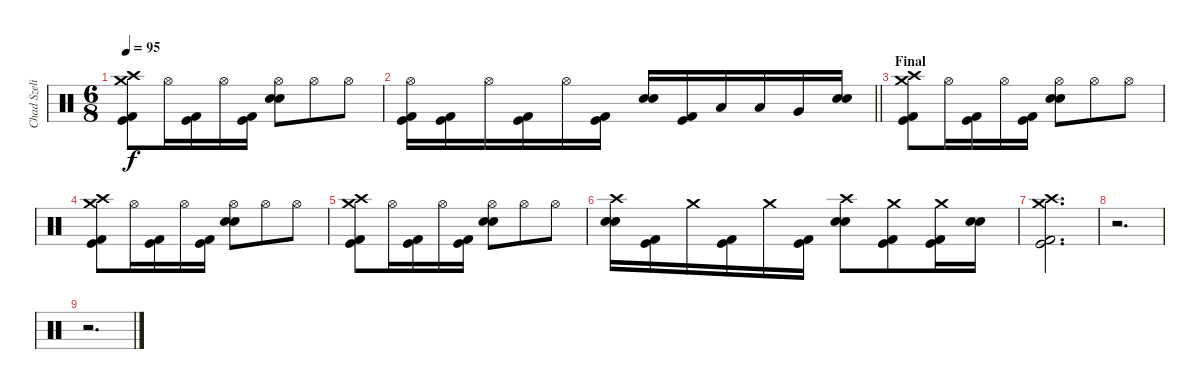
\track ("Chad Szeliga" "Chad Szeli") {instrument percussion}
\staff {score}
\articulation defaults
\ts (6 8)
\tempo 95
\clef neutral
\ks c
("Crash high (hit)" "Kick (hit) 2" "Kick (hit)" "Crash medium (hit)").8{dy f} "Hi-Hat (open)".16 ("Kick (hit) 2" "Kick (hit)").16 "Hi-Hat (open)".16 ("Kick (hit) 2" "Kick (hit)").16 ("Snare (hit) 2" "Snare (hit) 2" "Hi-Hat (open)").8 "Hi-Hat (open)".8 "Hi-Hat (open)".8 |
\barLineRight lightlight
("Kick (hit) 2" "Kick (hit)" "Hi-Hat (open)").16 ("Kick (hit) 2" "Kick (hit)").16 "Hi-Hat (open)".16 ("Kick (hit) 2" "Kick (hit)").16 "Hi-Hat (open)".16 ("Kick (hit) 2" "Kick (hit)").16 ("Snare (hit) 2" "Snare (hit) 2").16 ("Kick (hit) 2" "Kick (hit)").16 "Low Tom (hit)".16 "Low Tom (hit)".16 "Very Low Tom (hit)".16 ("Snare (hit) 2" "Snare (hit) 2").16 |
\section ("" "Final")
("Crash high (hit)" "Kick (hit) 2" "Kick (hit)" "Crash medium (hit)").8 "Hi-Hat (open)".16 ("Kick (hit) 2" "Kick (hit)").16 "Hi-Hat (open)".16 ("Kick (hit) 2" "Kick (hit)").16 ("Snare (hit) 2" "Snare (hit) 2" "Hi-Hat (open)").8 "Hi-Hat (open)".8 "Hi-Hat (open)".8 |
("Crash high (hit)" "Kick (hit) 2" "Kick (hit)" "Crash medium (hit)").8 "Hi-Hat (open)".16 ("Kick (hit) 2" "Kick (hit)").16 "Hi-Hat (open)".16 ("Kick (hit) 2" "Kick (hit)").16 ("Snare (hit) 2" "Snare (hit) 2" "Hi-Hat (open)").8 "Hi-Hat (open)".8 "Hi-Hat (open)".8 |
("Crash high (hit)" "Kick (hit) 2" "Kick (hit)" "Crash medium (hit)").8 "Hi-Hat (open)".16 ("Kick (hit) 2" "Kick (hit)").16 "Hi-Hat (open)".16 ("Kick (hit) 2" "Kick (hit)").16 ("Snare (hit) 2" "Snare (hit) 2" "Hi-Hat (open)").8 "Hi-Hat (open)".8 "Hi-Hat (open)".8 |
("Crash high (hit)" "Snare (hit) 2" "Snare (hit) 2").16 ("Kick (hit) 2" "Kick (hit)").16 "Crash medium (hit)".16 ("Kick (hit) 2" "Kick (hit)").16 "Crash medium (hit)".16 ("Kick (hit) 2" "Kick (hit)").16 ("Crash high (hit)" "Snare (hit) 2" "Snare (hit) 2").8 ("Crash medium (hit)" "Kick (hit) 2" "Kick (hit)").8 ("Crash medium (hit)" "Kick (hit) 2" "Kick (hit)").16 ("Snare (hit) 2" "Snare (hit) 2").16 |
("Crash high (hit)" "Kick (hit) 2" "Kick (hit)" "Crash medium (hit)").2{d} |
r.2{d} |
r.2{d}
